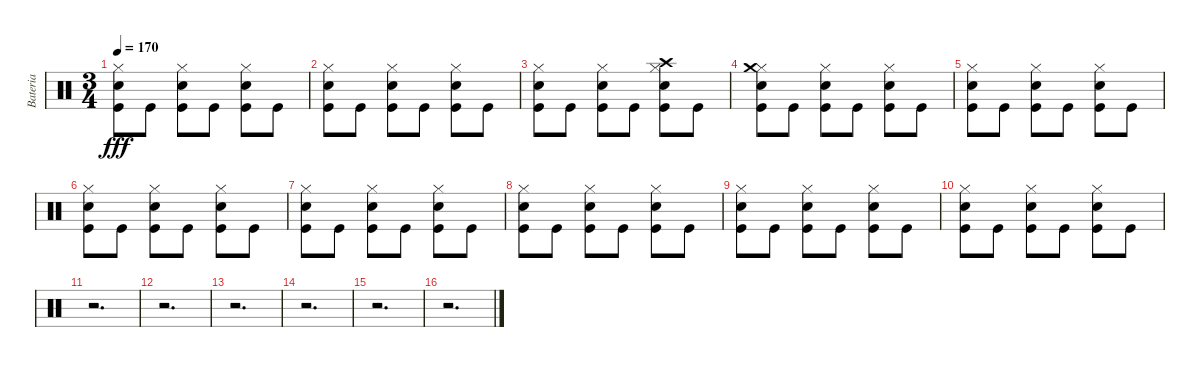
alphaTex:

\track ("Bateria" "Bateria") {instrument percussion}
\staff {score}
\articulation defaults
\ts (3 4)
\tempo 170
\clef neutral
\ks c
("Kick (hit)" "Snare (hit) 2" "Hi-Hat (closed)").8{dy fff} "Kick (hit)".8 ("Kick (hit)" "Snare (hit) 2" "Hi-Hat (closed)").8 "Kick (hit)".8 ("Kick (hit)" "Snare (hit) 2" "Hi-Hat (closed)").8 "Kick (hit)".8 |
("Kick (hit)" "Snare (hit) 2" "Hi-Hat (closed)").8 "Kick (hit)".8 ("Kick (hit)" "Snare (hit) 2" "Hi-Hat (closed)").8 "Kick (hit)".8 ("Kick (hit)" "Snare (hit) 2" "Hi-Hat (closed)").8 "Kick (hit)".8 |
("Kick (hit)" "Snare (hit) 2" "Hi-Hat (closed)").8 "Kick (hit)".8 ("Kick (hit)" "Snare (hit) 2" "Hi-Hat (closed)").8 "Kick (hit)".8 ("Kick (hit)" "Snare (hit) 2" "Hi-Hat (closed)" "Crash high (hit)").8 "Kick (hit)".8 |
("Kick (hit)" "Snare (hit) 2" "Hi-Hat (closed)" "Crash medium (hit)").8 "Kick (hit)".8 ("Kick (hit)" "Snare (hit) 2" "Hi-Hat (closed)").8 "Kick (hit)".8 ("Kick (hit)" "Snare (hit) 2" "Hi-Hat (closed)").8 "Kick (hit)".8 |
("Kick (hit)" "Snare (hit) 2" "Hi-Hat (closed)").8 "Kick (hit)".8 ("Kick (hit)" "Snare (hit) 2" "Hi-Hat (closed)").8 "Kick (hit)".8 ("Kick (hit)" "Snare (hit) 2" "Hi-Hat (closed)").8 "Kick (hit)".8 |
("Kick (hit)" "Snare (hit) 2" "Hi-Hat (closed)").8 "Kick (hit)".8 ("Kick (hit)" "Snare (hit) 2" "Hi-Hat (closed)").8 "Kick (hit)".8 ("Kick (hit)" "Snare (hit) 2" "Hi-Hat (closed)").8 "Kick (hit)".8 |
("Kick (hit)" "Snare (hit) 2" "Hi-Hat (closed)").8 "Kick (hit)".8 ("Kick (hit)" "Snare (hit) 2" "Hi-Hat (closed)").8 "Kick (hit)".8 ("Kick (hit)" "Snare (hit) 2" "Hi-Hat (closed)").8 "Kick (hit)".8 |
("Kick (hit)" "Snare (hit) 2" "Hi-Hat (closed)").8 "Kick (hit)".8 ("Kick (hit)" "Snare (hit) 2" "Hi-Hat (closed)").8 "Kick (hit)".8 ("Kick (hit)" "Snare (hit) 2" "Hi-Hat (closed)").8 "Kick (hit)".8 |
("Kick (hit)" "Snare (hit) 2" "Hi-Hat (closed)").8 "Kick (hit)".8 ("Kick (hit)" "Snare (hit) 2" "Hi-Hat (closed)").8 "Kick (hit)".8 ("Kick (hit)" "Snare (hit) 2" "Hi-Hat (closed)").8 "Kick (hit)".8 |
("Kick (hit)" "Snare (hit) 2" "Hi-Hat (closed)").8 "Kick (hit)".8 ("Kick (hit)" "Snare (hit) 2" "Hi-Hat (closed)").8 "Kick (hit)".8 ("Kick (hit)" "Snare (hit) 2" "Hi-Hat (closed)").8 "Kick (hit)".8 |
r.2{d} |
r.2{d} |
r.2{d} |
r.2{d} |
r.2{d} |
r.2{d}
